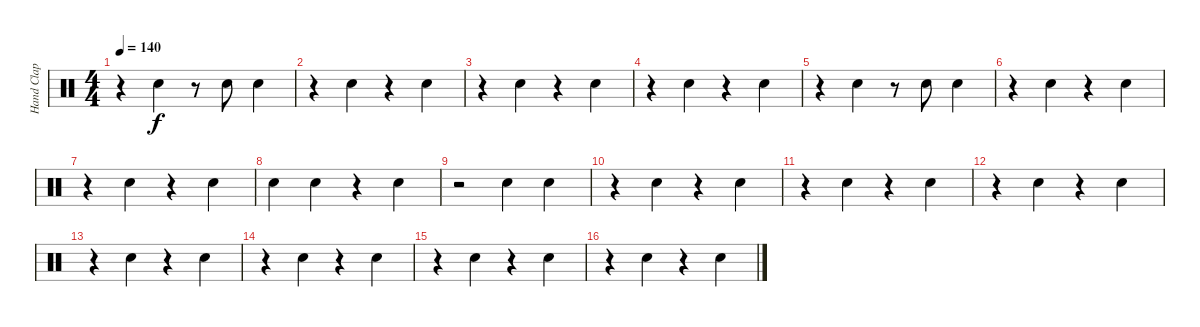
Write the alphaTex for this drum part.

\track ("Hand Clap" "Hand Clap") {instrument percussion}
\staff {score}
\articulation defaults
\ts (4 4)
\tempo 140
\clef neutral
\ks c
r.4{dy f} "Hand Clap (hit)".4 r.8 "Hand Clap (hit)".8 "Hand Clap (hit)".4 |
r.4 "Hand Clap (hit)".4 r.4 "Hand Clap (hit)".4 |
r.4 "Hand Clap (hit)".4 r.4 "Hand Clap (hit)".4 |
r.4 "Hand Clap (hit)".4 r.4 "Hand Clap (hit)".4 |
r.4 "Hand Clap (hit)".4 r.8 "Hand Clap (hit)".8 "Hand Clap (hit)".4 |
r.4 "Hand Clap (hit)".4 r.4 "Hand Clap (hit)".4 |
r.4 "Hand Clap (hit)".4 r.4 "Hand Clap (hit)".4 |
"Hand Clap (hit)".4 "Hand Clap (hit)".4 r.4 "Hand Clap (hit)".4 |
r.2 "Hand Clap (hit)".4 "Hand Clap (hit)".4 |
r.4 "Hand Clap (hit)".4 r.4 "Hand Clap (hit)".4 |
r.4 "Hand Clap (hit)".4 r.4 "Hand Clap (hit)".4 |
r.4 "Hand Clap (hit)".4 r.4 "Hand Clap (hit)".4 |
r.4 "Hand Clap (hit)".4 r.4 "Hand Clap (hit)".4 |
r.4 "Hand Clap (hit)".4 r.4 "Hand Clap (hit)".4 |
r.4 "Hand Clap (hit)".4 r.4 "Hand Clap (hit)".4 |
r.4 "Hand Clap (hit)".4 r.4 "Hand Clap (hit)".4
